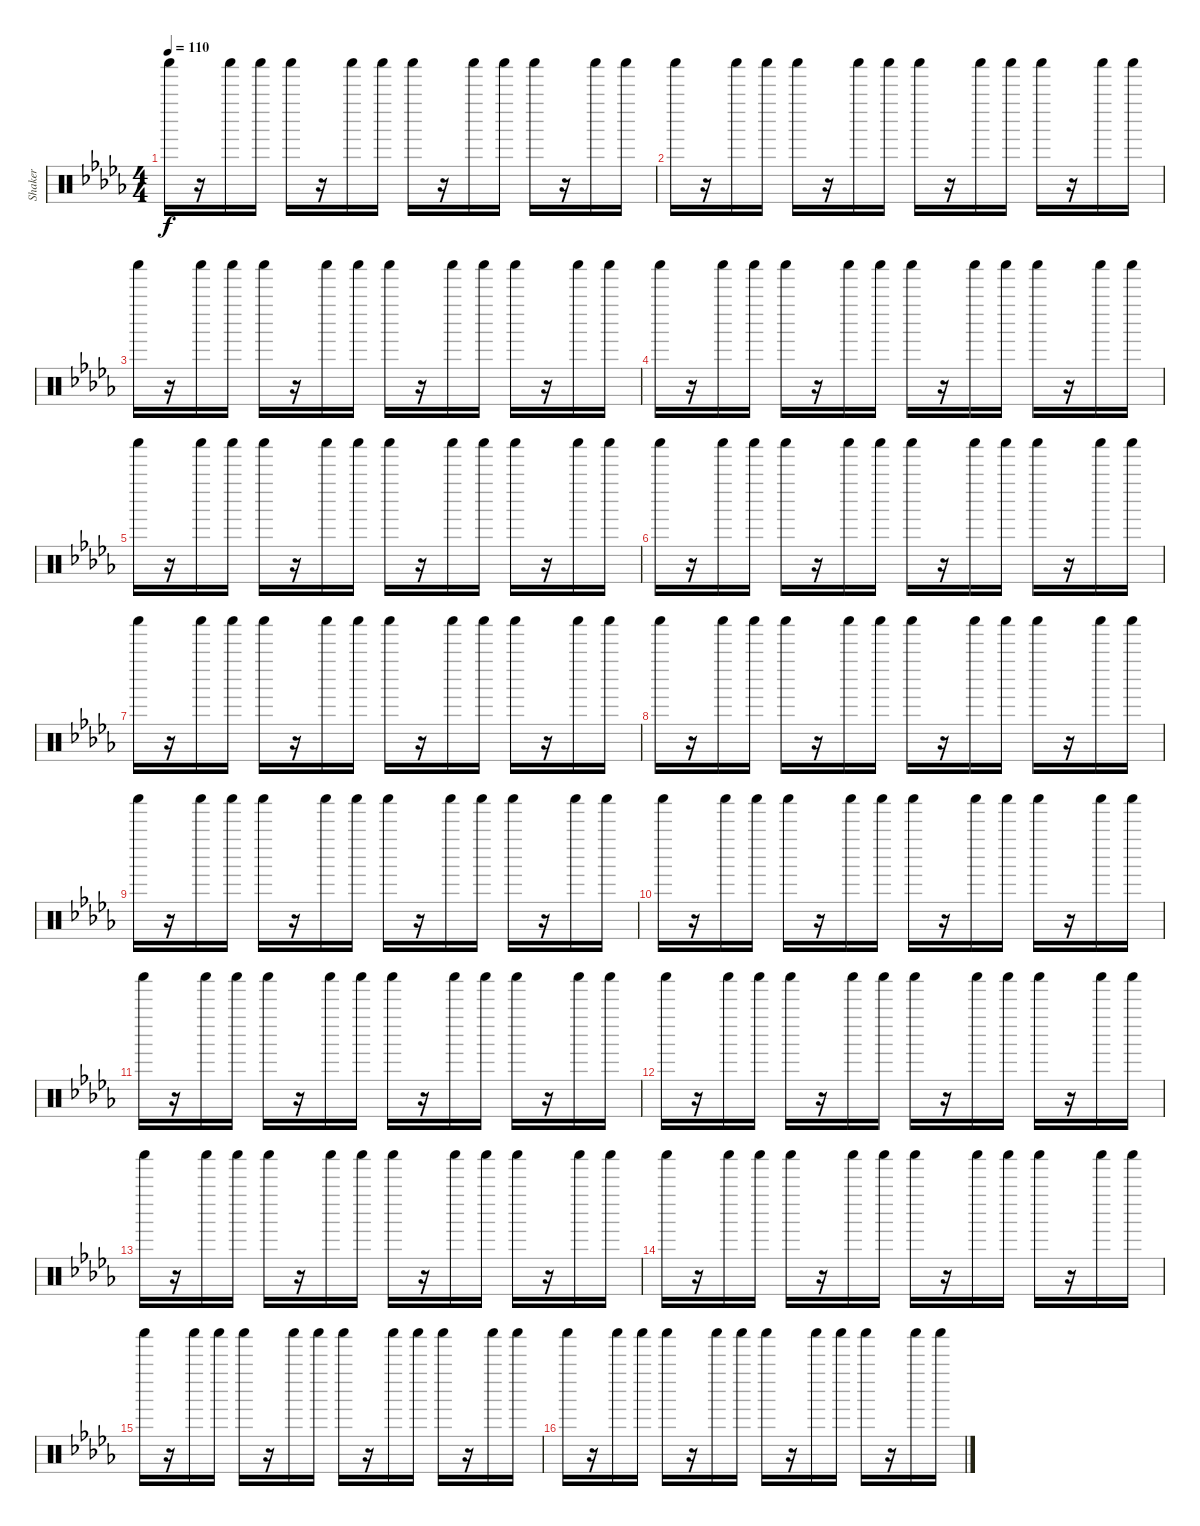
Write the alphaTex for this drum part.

\track ("Shaker" "Shaker") {instrument percussion}
\staff {score}
\articulation defaults
\ts (4 4)
\tempo 110
\clef neutral
\ks db "Shaker (hit)".16{dy f}
r.16 "Shaker (hit)".16 "Shaker (hit)".16 "Shaker (hit)".16 r.16 "Shaker (hit)".16 "Shaker (hit)".16 "Shaker (hit)".16 r.16 "Shaker (hit)".16 "Shaker (hit)".16 "Shaker (hit)".16 r.16 "Shaker (hit)".16 "Shaker (hit)".16 |
"Shaker (hit)".16 r.16 "Shaker (hit)".16 "Shaker (hit)".16 "Shaker (hit)".16 r.16 "Shaker (hit)".16 "Shaker (hit)".16 "Shaker (hit)".16 r.16 "Shaker (hit)".16 "Shaker (hit)".16 "Shaker (hit)".16 r.16 "Shaker (hit)".16 "Shaker (hit)".16 |
"Shaker (hit)".16 r.16 "Shaker (hit)".16 "Shaker (hit)".16 "Shaker (hit)".16 r.16 "Shaker (hit)".16 "Shaker (hit)".16 "Shaker (hit)".16 r.16 "Shaker (hit)".16 "Shaker (hit)".16 "Shaker (hit)".16 r.16 "Shaker (hit)".16 "Shaker (hit)".16 |
"Shaker (hit)".16 r.16 "Shaker (hit)".16 "Shaker (hit)".16 "Shaker (hit)".16 r.16 "Shaker (hit)".16 "Shaker (hit)".16 "Shaker (hit)".16 r.16 "Shaker (hit)".16 "Shaker (hit)".16 "Shaker (hit)".16 r.16 "Shaker (hit)".16 "Shaker (hit)".16 |
"Shaker (hit)".16 r.16 "Shaker (hit)".16 "Shaker (hit)".16 "Shaker (hit)".16 r.16 "Shaker (hit)".16 "Shaker (hit)".16 "Shaker (hit)".16 r.16 "Shaker (hit)".16 "Shaker (hit)".16 "Shaker (hit)".16 r.16 "Shaker (hit)".16 "Shaker (hit)".16 |
"Shaker (hit)".16 r.16 "Shaker (hit)".16 "Shaker (hit)".16 "Shaker (hit)".16 r.16 "Shaker (hit)".16 "Shaker (hit)".16 "Shaker (hit)".16 r.16 "Shaker (hit)".16 "Shaker (hit)".16 "Shaker (hit)".16 r.16 "Shaker (hit)".16 "Shaker (hit)".16 |
"Shaker (hit)".16 r.16 "Shaker (hit)".16 "Shaker (hit)".16 "Shaker (hit)".16 r.16 "Shaker (hit)".16 "Shaker (hit)".16 "Shaker (hit)".16 r.16 "Shaker (hit)".16 "Shaker (hit)".16 "Shaker (hit)".16 r.16 "Shaker (hit)".16 "Shaker (hit)".16 |
"Shaker (hit)".16 r.16 "Shaker (hit)".16 "Shaker (hit)".16 "Shaker (hit)".16 r.16 "Shaker (hit)".16 "Shaker (hit)".16 "Shaker (hit)".16 r.16 "Shaker (hit)".16 "Shaker (hit)".16 "Shaker (hit)".16 r.16 "Shaker (hit)".16 "Shaker (hit)".16 |
"Shaker (hit)".16 r.16 "Shaker (hit)".16 "Shaker (hit)".16 "Shaker (hit)".16 r.16 "Shaker (hit)".16 "Shaker (hit)".16 "Shaker (hit)".16 r.16 "Shaker (hit)".16 "Shaker (hit)".16 "Shaker (hit)".16 r.16 "Shaker (hit)".16 "Shaker (hit)".16 |
"Shaker (hit)".16 r.16 "Shaker (hit)".16 "Shaker (hit)".16 "Shaker (hit)".16 r.16 "Shaker (hit)".16 "Shaker (hit)".16 "Shaker (hit)".16 r.16 "Shaker (hit)".16 "Shaker (hit)".16 "Shaker (hit)".16 r.16 "Shaker (hit)".16 "Shaker (hit)".16 |
"Shaker (hit)".16 r.16 "Shaker (hit)".16 "Shaker (hit)".16 "Shaker (hit)".16 r.16 "Shaker (hit)".16 "Shaker (hit)".16 "Shaker (hit)".16 r.16 "Shaker (hit)".16 "Shaker (hit)".16 "Shaker (hit)".16 r.16 "Shaker (hit)".16 "Shaker (hit)".16 |
"Shaker (hit)".16 r.16 "Shaker (hit)".16 "Shaker (hit)".16 "Shaker (hit)".16 r.16 "Shaker (hit)".16 "Shaker (hit)".16 "Shaker (hit)".16 r.16 "Shaker (hit)".16 "Shaker (hit)".16 "Shaker (hit)".16 r.16 "Shaker (hit)".16 "Shaker (hit)".16 |
"Shaker (hit)".16 r.16 "Shaker (hit)".16 "Shaker (hit)".16 "Shaker (hit)".16 r.16 "Shaker (hit)".16 "Shaker (hit)".16 "Shaker (hit)".16 r.16 "Shaker (hit)".16 "Shaker (hit)".16 "Shaker (hit)".16 r.16 "Shaker (hit)".16 "Shaker (hit)".16 |
"Shaker (hit)".16 r.16 "Shaker (hit)".16 "Shaker (hit)".16 "Shaker (hit)".16 r.16 "Shaker (hit)".16 "Shaker (hit)".16 "Shaker (hit)".16 r.16 "Shaker (hit)".16 "Shaker (hit)".16 "Shaker (hit)".16 r.16 "Shaker (hit)".16 "Shaker (hit)".16 |
"Shaker (hit)".16 r.16 "Shaker (hit)".16 "Shaker (hit)".16 "Shaker (hit)".16 r.16 "Shaker (hit)".16 "Shaker (hit)".16 "Shaker (hit)".16 r.16 "Shaker (hit)".16 "Shaker (hit)".16 "Shaker (hit)".16 r.16 "Shaker (hit)".16 "Shaker (hit)".16 |
"Shaker (hit)".16 r.16 "Shaker (hit)".16 "Shaker (hit)".16 "Shaker (hit)".16 r.16 "Shaker (hit)".16 "Shaker (hit)".16 "Shaker (hit)".16 r.16 "Shaker (hit)".16 "Shaker (hit)".16 "Shaker (hit)".16 r.16 "Shaker (hit)".16 "Shaker (hit)".16
